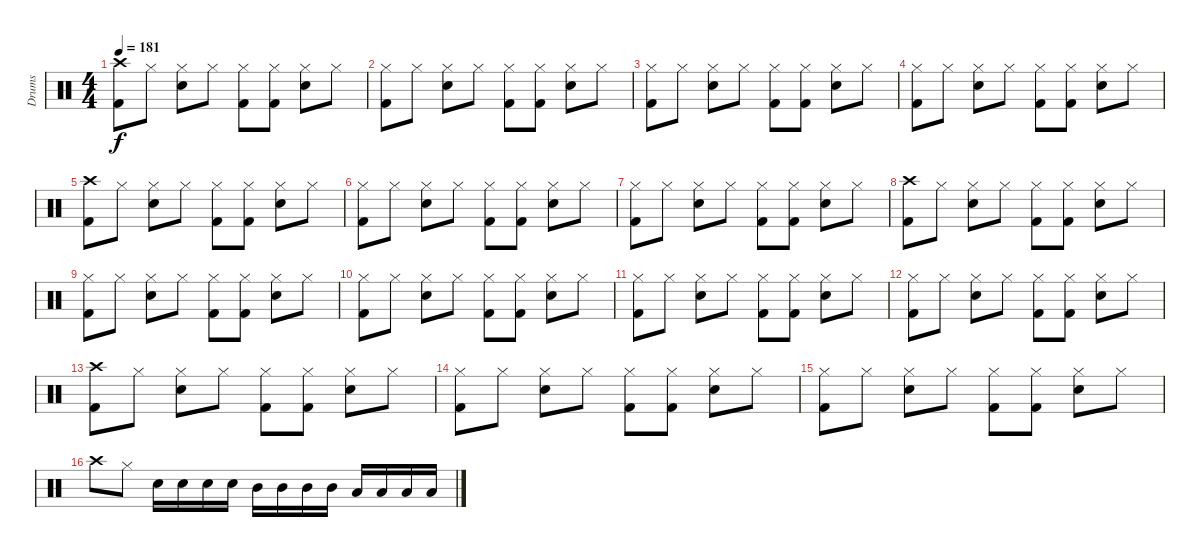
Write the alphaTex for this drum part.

\track ("Drums" "Drums") {instrument percussion}
\staff {score}
\articulation defaults
\ts (4 4)
\tempo 181
\clef neutral
\ks c
("Crash high (hit)" "Kick (hit) 2").8{dy f} "Hi-Hat (closed)".8 ("Hi-Hat (closed)" "Snare (hit) 2").8 "Hi-Hat (closed)".8 ("Hi-Hat (closed)" "Kick (hit) 2").8 ("Hi-Hat (closed)" "Kick (hit) 2").8 ("Hi-Hat (closed)" "Snare (hit) 2").8 "Hi-Hat (closed)".8 |
("Hi-Hat (closed)" "Kick (hit) 2").8 "Hi-Hat (closed)".8 ("Hi-Hat (closed)" "Snare (hit) 2").8 "Hi-Hat (closed)".8 ("Hi-Hat (closed)" "Kick (hit) 2").8 ("Hi-Hat (closed)" "Kick (hit) 2").8 ("Hi-Hat (closed)" "Snare (hit) 2").8 "Hi-Hat (closed)".8 |
("Hi-Hat (closed)" "Kick (hit) 2").8 "Hi-Hat (closed)".8 ("Hi-Hat (closed)" "Snare (hit) 2").8 "Hi-Hat (closed)".8 ("Hi-Hat (closed)" "Kick (hit) 2").8 ("Hi-Hat (closed)" "Kick (hit) 2").8 ("Hi-Hat (closed)" "Snare (hit) 2").8 "Hi-Hat (closed)".8 |
("Hi-Hat (closed)" "Kick (hit) 2").8 "Hi-Hat (closed)".8 ("Hi-Hat (closed)" "Snare (hit) 2").8 "Hi-Hat (closed)".8 ("Hi-Hat (closed)" "Kick (hit) 2").8 ("Hi-Hat (closed)" "Kick (hit) 2").8 ("Hi-Hat (closed)" "Snare (hit) 2").8 "Hi-Hat (closed)".8 |
("Crash high (hit)" "Kick (hit) 2").8 "Hi-Hat (closed)".8 ("Hi-Hat (closed)" "Snare (hit) 2").8 "Hi-Hat (closed)".8 ("Hi-Hat (closed)" "Kick (hit) 2").8 ("Hi-Hat (closed)" "Kick (hit) 2").8 ("Hi-Hat (closed)" "Snare (hit) 2").8 "Hi-Hat (closed)".8 |
("Hi-Hat (closed)" "Kick (hit) 2").8 "Hi-Hat (closed)".8 ("Hi-Hat (closed)" "Snare (hit) 2").8 "Hi-Hat (closed)".8 ("Hi-Hat (closed)" "Kick (hit) 2").8 ("Hi-Hat (closed)" "Kick (hit) 2").8 ("Hi-Hat (closed)" "Snare (hit) 2").8 "Hi-Hat (closed)".8 |
("Hi-Hat (closed)" "Kick (hit) 2").8 "Hi-Hat (closed)".8 ("Hi-Hat (closed)" "Snare (hit) 2").8 "Hi-Hat (closed)".8 ("Hi-Hat (closed)" "Kick (hit) 2").8 ("Hi-Hat (closed)" "Kick (hit) 2").8 ("Hi-Hat (closed)" "Snare (hit) 2").8 "Hi-Hat (closed)".8 |
("Crash high (hit)" "Kick (hit) 2").8 "Hi-Hat (closed)".8 ("Hi-Hat (closed)" "Snare (hit) 2").8 "Hi-Hat (closed)".8 ("Hi-Hat (closed)" "Kick (hit) 2").8 ("Hi-Hat (closed)" "Kick (hit) 2").8 ("Hi-Hat (closed)" "Snare (hit) 2").8 "Hi-Hat (closed)".8 |
("Hi-Hat (closed)" "Kick (hit) 2").8 "Hi-Hat (closed)".8 ("Hi-Hat (closed)" "Snare (hit) 2").8 "Hi-Hat (closed)".8 ("Hi-Hat (closed)" "Kick (hit) 2").8 ("Hi-Hat (closed)" "Kick (hit) 2").8 ("Hi-Hat (closed)" "Snare (hit) 2").8 "Hi-Hat (closed)".8 |
("Hi-Hat (closed)" "Kick (hit) 2").8 "Hi-Hat (closed)".8 ("Hi-Hat (closed)" "Snare (hit) 2").8 "Hi-Hat (closed)".8 ("Hi-Hat (closed)" "Kick (hit) 2").8 ("Hi-Hat (closed)" "Kick (hit) 2").8 ("Hi-Hat (closed)" "Snare (hit) 2").8 "Hi-Hat (closed)".8 |
("Hi-Hat (closed)" "Kick (hit) 2").8 "Hi-Hat (closed)".8 ("Hi-Hat (closed)" "Snare (hit) 2").8 "Hi-Hat (closed)".8 ("Hi-Hat (closed)" "Kick (hit) 2").8 ("Hi-Hat (closed)" "Kick (hit) 2").8 ("Hi-Hat (closed)" "Snare (hit) 2").8 "Hi-Hat (closed)".8 |
("Hi-Hat (closed)" "Kick (hit) 2").8 "Hi-Hat (closed)".8 ("Hi-Hat (closed)" "Snare (hit) 2").8 "Hi-Hat (closed)".8 ("Hi-Hat (closed)" "Kick (hit) 2").8 ("Hi-Hat (closed)" "Kick (hit) 2").8 ("Hi-Hat (closed)" "Snare (hit) 2").8 "Hi-Hat (closed)".8 |
("Crash high (hit)" "Kick (hit) 2").8 "Hi-Hat (closed)".8 ("Hi-Hat (closed)" "Snare (hit) 2").8 "Hi-Hat (closed)".8 ("Hi-Hat (closed)" "Kick (hit) 2").8 ("Hi-Hat (closed)" "Kick (hit) 2").8 ("Hi-Hat (closed)" "Snare (hit) 2").8 "Hi-Hat (closed)".8 |
("Hi-Hat (closed)" "Kick (hit) 2").8 "Hi-Hat (closed)".8 ("Hi-Hat (closed)" "Snare (hit) 2").8 "Hi-Hat (closed)".8 ("Hi-Hat (closed)" "Kick (hit) 2").8 ("Hi-Hat (closed)" "Kick (hit) 2").8 ("Hi-Hat (closed)" "Snare (hit) 2").8 "Hi-Hat (closed)".8 |
("Hi-Hat (closed)" "Kick (hit) 2").8 "Hi-Hat (closed)".8 ("Hi-Hat (closed)" "Snare (hit) 2").8 "Hi-Hat (closed)".8 ("Hi-Hat (closed)" "Kick (hit) 2").8 ("Hi-Hat (closed)" "Kick (hit) 2").8 ("Hi-Hat (closed)" "Snare (hit) 2").8 "Hi-Hat (closed)".8 |
"Crash high (hit)".8 "Hi-Hat (closed)".8 "Snare (hit) 2".16 "Snare (hit) 2".16 "Snare (hit) 2".16 "Snare (hit) 2".16 "Mid Tom (hit)".16 "Mid Tom (hit)".16 "Mid Tom (hit)".16 "Mid Tom (hit)".16 "Low Tom (hit)".16 "Low Tom (hit)".16 "Low Tom (hit)".16 "Low Tom (hit)".16
